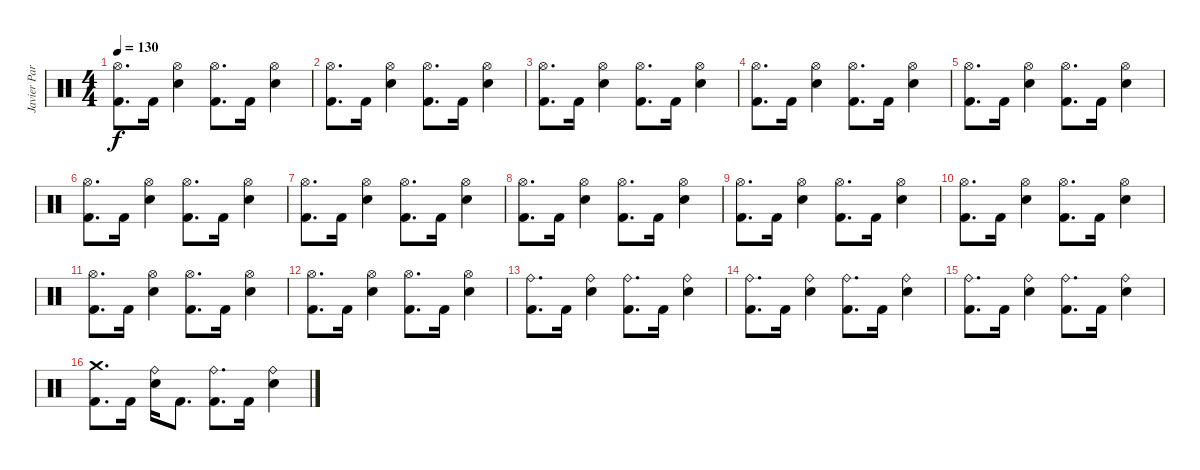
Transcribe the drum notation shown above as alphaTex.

\track ("Javier Partida" "Javier Par") {instrument percussion}
\staff {score}
\articulation defaults
\ts (4 4)
\tempo 130
\clef neutral
\ks c
("Hi-Hat (open)" "Kick (hit) 2").8{d dy f} "Kick (hit) 2".16 ("Hi-Hat (open)" "Electric Snare (hit)").4 ("Hi-Hat (open)" "Kick (hit) 2").8{d} "Kick (hit) 2".16 ("Hi-Hat (open)" "Electric Snare (hit)").4 |
("Hi-Hat (open)" "Kick (hit) 2").8{d} "Kick (hit) 2".16 ("Hi-Hat (open)" "Electric Snare (hit)").4 ("Hi-Hat (open)" "Kick (hit) 2").8{d} "Kick (hit) 2".16 ("Hi-Hat (open)" "Electric Snare (hit)").4 |
("Hi-Hat (open)" "Kick (hit) 2").8{d} "Kick (hit) 2".16 ("Hi-Hat (open)" "Electric Snare (hit)").4 ("Hi-Hat (open)" "Kick (hit) 2").8{d} "Kick (hit) 2".16 ("Hi-Hat (open)" "Electric Snare (hit)").4 |
("Hi-Hat (open)" "Kick (hit) 2").8{d} "Kick (hit) 2".16 ("Hi-Hat (open)" "Electric Snare (hit)").4 ("Hi-Hat (open)" "Kick (hit) 2").8{d} "Kick (hit) 2".16 ("Hi-Hat (open)" "Electric Snare (hit)").4 |
("Hi-Hat (open)" "Kick (hit) 2").8{d} "Kick (hit) 2".16 ("Hi-Hat (open)" "Electric Snare (hit)").4 ("Hi-Hat (open)" "Kick (hit) 2").8{d} "Kick (hit) 2".16 ("Hi-Hat (open)" "Electric Snare (hit)").4 |
("Hi-Hat (open)" "Kick (hit) 2").8{d} "Kick (hit) 2".16 ("Hi-Hat (open)" "Electric Snare (hit)").4 ("Hi-Hat (open)" "Kick (hit) 2").8{d} "Kick (hit) 2".16 ("Hi-Hat (open)" "Electric Snare (hit)").4 |
("Hi-Hat (open)" "Kick (hit) 2").8{d} "Kick (hit) 2".16 ("Hi-Hat (open)" "Electric Snare (hit)").4 ("Hi-Hat (open)" "Kick (hit) 2").8{d} "Kick (hit) 2".16 ("Hi-Hat (open)" "Electric Snare (hit)").4 |
("Hi-Hat (open)" "Kick (hit) 2").8{d} "Kick (hit) 2".16 ("Hi-Hat (open)" "Electric Snare (hit)").4 ("Hi-Hat (open)" "Kick (hit) 2").8{d} "Kick (hit) 2".16 ("Hi-Hat (open)" "Electric Snare (hit)").4 |
("Hi-Hat (open)" "Kick (hit) 2").8{d} "Kick (hit) 2".16 ("Hi-Hat (open)" "Electric Snare (hit)").4 ("Hi-Hat (open)" "Kick (hit) 2").8{d} "Kick (hit) 2".16 ("Hi-Hat (open)" "Electric Snare (hit)").4 |
("Hi-Hat (open)" "Kick (hit) 2").8{d} "Kick (hit) 2".16 ("Hi-Hat (open)" "Electric Snare (hit)").4 ("Hi-Hat (open)" "Kick (hit) 2").8{d} "Kick (hit) 2".16 ("Hi-Hat (open)" "Electric Snare (hit)").4 |
("Hi-Hat (open)" "Kick (hit) 2").8{d} "Kick (hit) 2".16 ("Hi-Hat (open)" "Electric Snare (hit)").4 ("Hi-Hat (open)" "Kick (hit) 2").8{d} "Kick (hit) 2".16 ("Hi-Hat (open)" "Electric Snare (hit)").4 |
("Hi-Hat (open)" "Kick (hit) 2").8{d} "Kick (hit) 2".16 ("Hi-Hat (open)" "Electric Snare (hit)").4 ("Hi-Hat (open)" "Kick (hit) 2").8{d} "Kick (hit) 2".16 ("Hi-Hat (open)" "Electric Snare (hit)").4 |
("Ride (bell)" "Kick (hit) 2").8{d} "Kick (hit) 2".16 ("Ride (bell)" "Electric Snare (hit)").4 ("Ride (bell)" "Kick (hit) 2").8{d} "Kick (hit) 2".16 ("Ride (bell)" "Electric Snare (hit)").4 |
("Ride (bell)" "Kick (hit) 2").8{d} "Kick (hit) 2".16 ("Ride (bell)" "Electric Snare (hit)").4 ("Ride (bell)" "Kick (hit) 2").8{d} "Kick (hit) 2".16 ("Ride (bell)" "Electric Snare (hit)").4 |
("Ride (bell)" "Kick (hit) 2").8{d} "Kick (hit) 2".16 ("Ride (bell)" "Electric Snare (hit)").4 ("Ride (bell)" "Kick (hit) 2").8{d} "Kick (hit) 2".16 ("Ride (bell)" "Electric Snare (hit)").4 |
("Crash medium (hit)" "Kick (hit) 2").8{d} "Kick (hit) 2".16 ("Ride (bell)" "Electric Snare (hit)").16 "Kick (hit) 2".8{d} ("Ride (bell)" "Kick (hit) 2").8{d} "Kick (hit) 2".16 ("Ride (bell)" "Electric Snare (hit)").4
